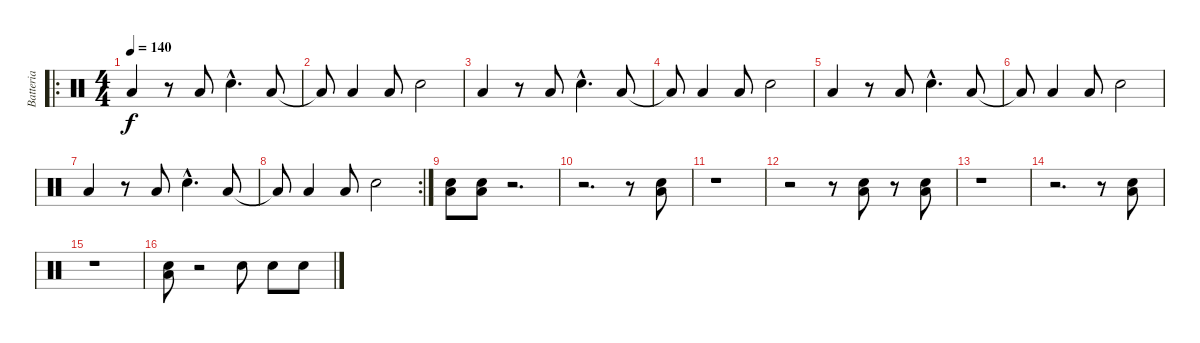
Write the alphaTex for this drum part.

\track ("Batteria" "Batteria") {instrument percussion}
\staff {score}
\articulation defaults
\ro
\ts (4 4)
\tempo 140
\clef neutral
\ks c "Low Floor Tom (hit)".4{dy f}
r.8 "Low Floor Tom (hit)".8 "Snare (hit) 2"{hac}.4{d} "Low Floor Tom (hit)".8 |
"Low Floor Tom (hit)"{t}.8 "Low Floor Tom (hit)".4 "Low Floor Tom (hit)".8 "Snare (hit) 2".2 |
"Low Floor Tom (hit)".4 r.8 "Low Floor Tom (hit)".8 "Snare (hit) 2"{hac}.4{d} "Low Floor Tom (hit)".8 |
"Low Floor Tom (hit)"{t}.8 "Low Floor Tom (hit)".4 "Low Floor Tom (hit)".8 "Snare (hit) 2".2 |
"Low Floor Tom (hit)".4 r.8 "Low Floor Tom (hit)".8 "Snare (hit) 2"{hac}.4{d} "Low Floor Tom (hit)".8 |
"Low Floor Tom (hit)"{t}.8 "Low Floor Tom (hit)".4 "Low Floor Tom (hit)".8 "Snare (hit) 2".2 |
"Low Floor Tom (hit)".4 r.8 "Low Floor Tom (hit)".8 "Snare (hit) 2"{hac}.4{d} "Low Floor Tom (hit)".8 |
\rc 2 "Low Floor Tom (hit)"{t}.8 "Low Floor Tom (hit)".4 "Low Floor Tom (hit)".8 "Snare (hit) 2".2
|
("Low Floor Tom (hit)" "Snare (hit) 2").8 ("Low Floor Tom (hit)" "Snare (hit) 2").8 r.2{d} |
r.2{d} r.8 ("Low Floor Tom (hit)" "Snare (hit) 2").8 |
r.1 |
r.2 r.8 ("Low Floor Tom (hit)" "Snare (hit) 2").8 r.8 ("Low Floor Tom (hit)" "Snare (hit) 2").8 |
r.1 |
r.2{d} r.8 ("Low Floor Tom (hit)" "Snare (hit) 2").8 |
r.1 |
("Low Floor Tom (hit)" "Snare (hit) 2").8 r.2 "Snare (hit) 2".8 "Snare (hit) 2".8 "Snare (hit) 2".8
